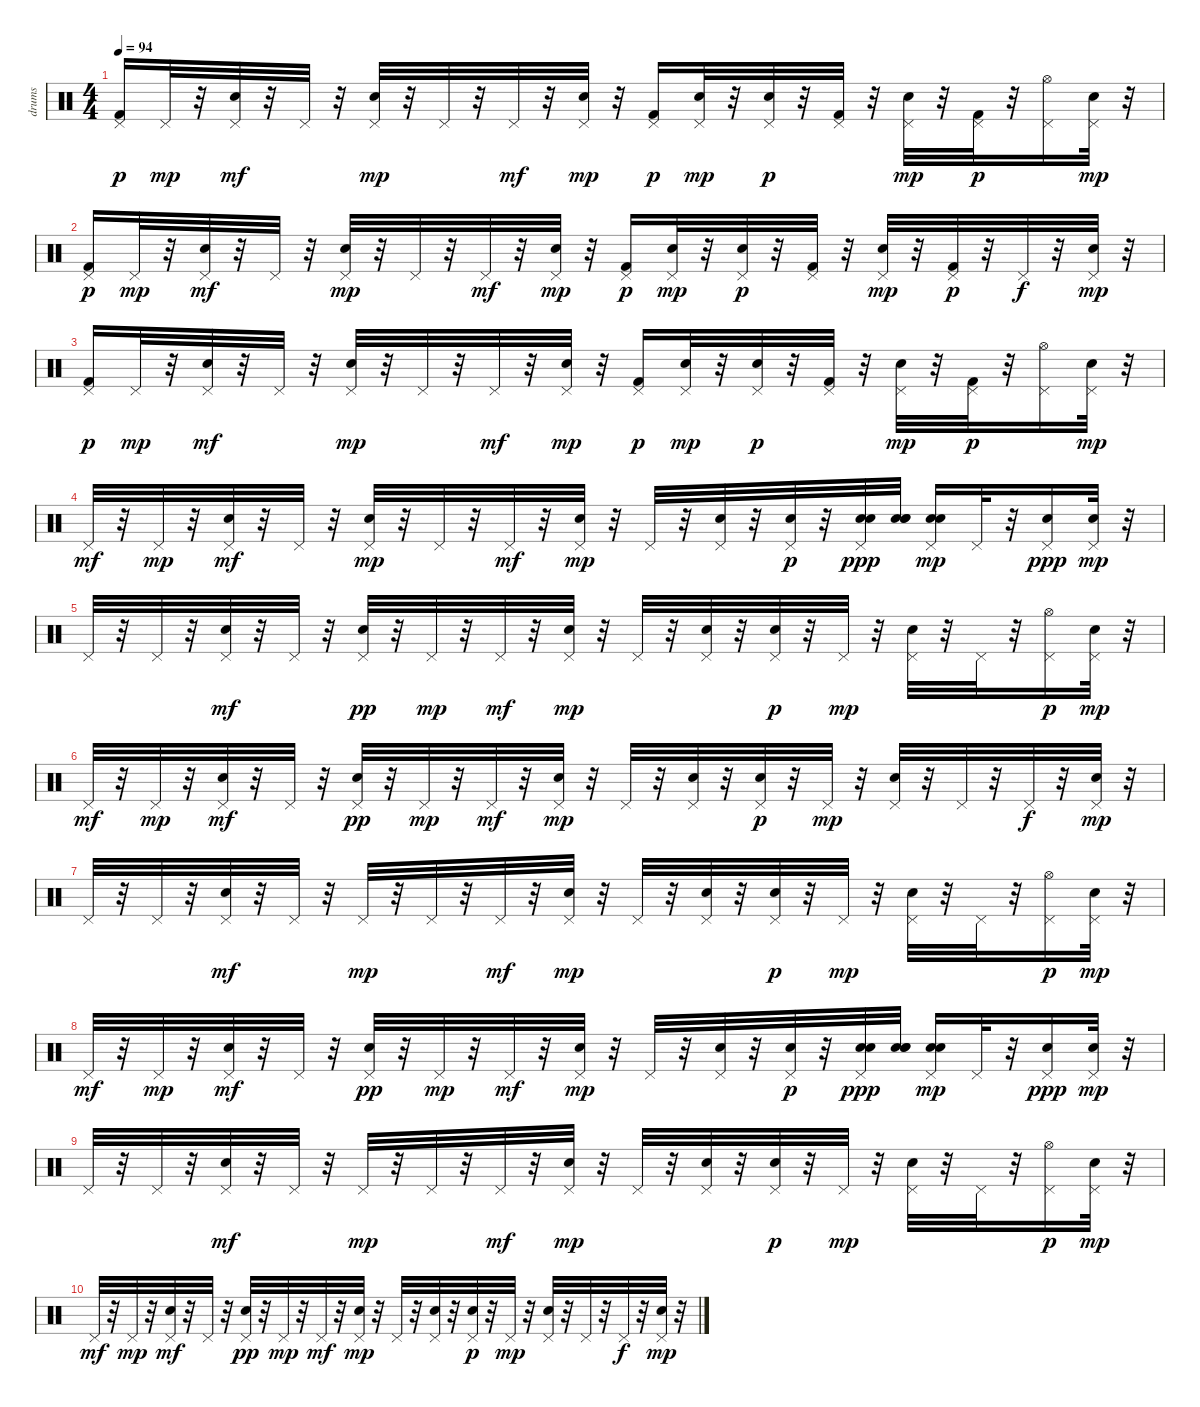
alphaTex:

\track ("drums" "drums") {instrument percussion}
\staff {score}
\articulation defaults
\ts (4 4)
\tempo 94
\clef neutral
\ks c
("Pedal Hi-Hat (hit)" "Kick (hit) 2").16{dy p} "Pedal Hi-Hat (hit)".32{dy mp} r.32 ("Electric Snare (hit)" "Pedal Hi-Hat (hit)").32{dy mf} r.32 "Pedal Hi-Hat (hit)".32 r.32 ("Electric Snare (hit)" "Pedal Hi-Hat (hit)").32{dy mp} r.32 "Pedal Hi-Hat (hit)".32 r.32 "Pedal Hi-Hat (hit)".32{dy mf} r.32 ("Electric Snare (hit)" "Pedal Hi-Hat (hit)").32{dy mp} r.32 ("Pedal Hi-Hat (hit)" "Kick (hit) 2").16{dy p} ("Electric Snare (hit)" "Pedal Hi-Hat (hit)").32{dy mp} r.32 ("Electric Snare (hit)" "Pedal Hi-Hat (hit)").32{dy p} r.32 ("Pedal Hi-Hat (hit)" "Kick (hit) 2").32 r.32 ("Electric Snare (hit)" "Pedal Hi-Hat (hit)").32{dy mp} r.32 ("Pedal Hi-Hat (hit)" "Kick (hit) 2").32{dy p} r.32 ("Hi-Hat (open)" "Pedal Hi-Hat (hit)").16 ("Electric Snare (hit)" "Pedal Hi-Hat (hit)").32{dy mp} r.32 |
("Pedal Hi-Hat (hit)" "Kick (hit) 2").16{dy p} "Pedal Hi-Hat (hit)".32{dy mp} r.32 ("Electric Snare (hit)" "Pedal Hi-Hat (hit)").32{dy mf} r.32 "Pedal Hi-Hat (hit)".32 r.32 ("Electric Snare (hit)" "Pedal Hi-Hat (hit)").32{dy mp} r.32 "Pedal Hi-Hat (hit)".32 r.32 "Pedal Hi-Hat (hit)".32{dy mf} r.32 ("Electric Snare (hit)" "Pedal Hi-Hat (hit)").32{dy mp} r.32 ("Pedal Hi-Hat (hit)" "Kick (hit) 2").16{dy p} ("Electric Snare (hit)" "Pedal Hi-Hat (hit)").32{dy mp volume 9} r.32 ("Electric Snare (hit)" "Pedal Hi-Hat (hit)").32{dy p volume 9} r.32 ("Pedal Hi-Hat (hit)" "Kick (hit) 2").32 r.32 ("Electric Snare (hit)" "Pedal Hi-Hat (hit)").32{dy mp} r.32 ("Pedal Hi-Hat (hit)" "Kick (hit) 2").32{dy p} r.32 "Pedal Hi-Hat (hit)".32{dy f} r.32 ("Electric Snare (hit)" "Pedal Hi-Hat (hit)").32{dy mp} r.32 |
("Pedal Hi-Hat (hit)" "Kick (hit) 2").16{dy p volume 9} "Pedal Hi-Hat (hit)".32{dy mp volume 8} r.32 ("Electric Snare (hit)" "Pedal Hi-Hat (hit)").32{dy mf volume 8} r.32 "Pedal Hi-Hat (hit)".32 r.32 ("Electric Snare (hit)" "Pedal Hi-Hat (hit)").32{dy mp} r.32 "Pedal Hi-Hat (hit)".32{volume 8} r.32 "Pedal Hi-Hat (hit)".32{dy mf} r.32 ("Electric Snare (hit)" "Pedal Hi-Hat (hit)").32{dy mp} r.32 ("Pedal Hi-Hat (hit)" "Kick (hit) 2").16{dy p} ("Electric Snare (hit)" "Pedal Hi-Hat (hit)").32{dy mp} r.32 ("Electric Snare (hit)" "Pedal Hi-Hat (hit)").32{dy p} r.32 ("Pedal Hi-Hat (hit)" "Kick (hit) 2").32 r.32 ("Electric Snare (hit)" "Pedal Hi-Hat (hit)").32{dy mp volume 8} r.32 ("Pedal Hi-Hat (hit)" "Kick (hit) 2").32{dy p volume 8} r.32 ("Hi-Hat (open)" "Pedal Hi-Hat (hit)").16{volume 8} ("Electric Snare (hit)" "Pedal Hi-Hat (hit)").32{dy mp} r.32 |
"Pedal Hi-Hat (hit)".32{dy mf} r.32 "Pedal Hi-Hat (hit)".32{dy mp volume 7} r.32 ("Electric Snare (hit)" "Pedal Hi-Hat (hit)").32{dy mf volume 7} r.32 "Pedal Hi-Hat (hit)".32 r.32 ("Electric Snare (hit)" "Pedal Hi-Hat (hit)").32{dy mp} r.32 "Pedal Hi-Hat (hit)".32{volume 7} r.32 "Pedal Hi-Hat (hit)".32{dy mf} r.32 ("Electric Snare (hit)" "Pedal Hi-Hat (hit)").32{dy mp volume 7} r.32 "Pedal Hi-Hat (hit)".32 r.32 ("Electric Snare (hit)" "Pedal Hi-Hat (hit)").32{volume 6} r.32 ("Electric Snare (hit)" "Pedal Hi-Hat (hit)").32{dy p volume 6} r.32 ("Snare (hit) 2" "Pedal Hi-Hat (hit)" "Snare (hit) 2").32{dy ppp} ("Snare (hit) 2" "Snare (hit) 2" "Snare (hit) 2").32 ("Snare (hit) 2" "Snare (hit) 2" "Pedal Hi-Hat (hit)").16{dy mp} "Pedal Hi-Hat (hit)".32{volume 6} r.32 ("Snare (hit) 2" "Pedal Hi-Hat (hit)").16{dy ppp volume 6} ("Electric Snare (hit)" "Pedal Hi-Hat (hit)").32{dy mp} r.32 |
"Pedal Hi-Hat (hit)".32{volume 6} r.32 "Pedal Hi-Hat (hit)".32 r.32 ("Electric Snare (hit)" "Pedal Hi-Hat (hit)").32{dy mf} r.32 "Pedal Hi-Hat (hit)".32{volume 5} r.32 ("Pedal Hi-Hat (hit)" "Electric Snare (hit)").32{dy pp} r.32 "Pedal Hi-Hat (hit)".32{dy mp} r.32 "Pedal Hi-Hat (hit)".32{dy mf} r.32 ("Electric Snare (hit)" "Pedal Hi-Hat (hit)").32{dy mp} r.32 "Pedal Hi-Hat (hit)".32{volume 5} r.32 ("Electric Snare (hit)" "Pedal Hi-Hat (hit)").32 r.32 ("Electric Snare (hit)" "Pedal Hi-Hat (hit)").32{dy p volume 5} r.32 "Pedal Hi-Hat (hit)".32{dy mp volume 5} r.32 ("Electric Snare (hit)" "Pedal Hi-Hat (hit)").32 r.32 "Pedal Hi-Hat (hit)".32 r.32 ("Hi-Hat (open)" "Pedal Hi-Hat (hit)").16{dy p volume 5} ("Electric Snare (hit)" "Pedal Hi-Hat (hit)").32{dy mp} r.32 |
"Pedal Hi-Hat (hit)".32{dy mf volume 4} r.32 "Pedal Hi-Hat (hit)".32{dy mp volume 4} r.32 ("Electric Snare (hit)" "Pedal Hi-Hat (hit)").32{dy mf} r.32 "Pedal Hi-Hat (hit)".32{volume 4} r.32 ("Pedal Hi-Hat (hit)" "Electric Snare (hit)").32{dy pp} r.32 "Pedal Hi-Hat (hit)".32{dy mp volume 4} r.32 "Pedal Hi-Hat (hit)".32{dy mf} r.32 ("Electric Snare (hit)" "Pedal Hi-Hat (hit)").32{dy mp volume 4} r.32 "Pedal Hi-Hat (hit)".32{volume 4} r.32 ("Electric Snare (hit)" "Pedal Hi-Hat (hit)").32 r.32 ("Electric Snare (hit)" "Pedal Hi-Hat (hit)").32{dy p} r.32 "Pedal Hi-Hat (hit)".32{dy mp volume 4} r.32 ("Electric Snare (hit)" "Pedal Hi-Hat (hit)").32 r.32 "Pedal Hi-Hat (hit)".32 r.32 "Pedal Hi-Hat (hit)".32{dy f} r.32 ("Electric Snare (hit)" "Pedal Hi-Hat (hit)").32{dy mp} r.32 |
"Pedal Hi-Hat (hit)".32 r.32 "Pedal Hi-Hat (hit)".32{volume 4} r.32 ("Electric Snare (hit)" "Pedal Hi-Hat (hit)").32{dy mf} r.32 "Pedal Hi-Hat (hit)".32{volume 3} r.32 "Pedal Hi-Hat (hit)".32{dy mp} r.32 "Pedal Hi-Hat (hit)".32 r.32 "Pedal Hi-Hat (hit)".32{dy mf} r.32 ("Electric Snare (hit)" "Pedal Hi-Hat (hit)").32{dy mp} r.32 "Pedal Hi-Hat (hit)".32{volume 3} r.32 ("Electric Snare (hit)" "Pedal Hi-Hat (hit)").32 r.32 ("Electric Snare (hit)" "Pedal Hi-Hat (hit)").32{dy p} r.32 "Pedal Hi-Hat (hit)".32{dy mp volume 3} r.32 ("Electric Snare (hit)" "Pedal Hi-Hat (hit)").32{volume 3} r.32 "Pedal Hi-Hat (hit)".32{volume 3} r.32 ("Hi-Hat (open)" "Pedal Hi-Hat (hit)").16{dy p volume 2} ("Electric Snare (hit)" "Pedal Hi-Hat (hit)").32{dy mp volume 2} r.32 |
"Pedal Hi-Hat (hit)".32{dy mf volume 2} r.32 "Pedal Hi-Hat (hit)".32{dy mp} r.32 ("Electric Snare (hit)" "Pedal Hi-Hat (hit)").32{dy mf} r.32 "Pedal Hi-Hat (hit)".32{volume 2} r.32 ("Pedal Hi-Hat (hit)" "Electric Snare (hit)").32{dy pp} r.32 "Pedal Hi-Hat (hit)".32{dy mp} r.32 "Pedal Hi-Hat (hit)".32{dy mf volume 2} r.32 ("Electric Snare (hit)" "Pedal Hi-Hat (hit)").32{dy mp} r.32 "Pedal Hi-Hat (hit)".32{volume 1} r.32 ("Electric Snare (hit)" "Pedal Hi-Hat (hit)").32{volume 1} r.32 ("Electric Snare (hit)" "Pedal Hi-Hat (hit)").32{dy p volume 1} r.32 ("Snare (hit) 2" "Pedal Hi-Hat (hit)" "Snare (hit) 2").32{dy ppp} ("Snare (hit) 2" "Snare (hit) 2" "Snare (hit) 2").32 ("Snare (hit) 2" "Snare (hit) 2" "Pedal Hi-Hat (hit)").16{dy mp} "Pedal Hi-Hat (hit)".32 r.32 ("Snare (hit) 2" "Pedal Hi-Hat (hit)").16{dy ppp volume 1} ("Electric Snare (hit)" "Pedal Hi-Hat (hit)").32{dy mp volume 0} r.32 |
"Pedal Hi-Hat (hit)".32 r.32 "Pedal Hi-Hat (hit)".32 r.32 ("Electric Snare (hit)" "Pedal Hi-Hat (hit)").32{dy mf volume 0} r.32 "Pedal Hi-Hat (hit)".32 r.32 "Pedal Hi-Hat (hit)".32{dy mp} r.32 "Pedal Hi-Hat (hit)".32 r.32 "Pedal Hi-Hat (hit)".32{dy mf} r.32 ("Electric Snare (hit)" "Pedal Hi-Hat (hit)").32{dy mp} r.32 "Pedal Hi-Hat (hit)".32 r.32 ("Electric Snare (hit)" "Pedal Hi-Hat (hit)").32 r.32 ("Electric Snare (hit)" "Pedal Hi-Hat (hit)").32{dy p} r.32 "Pedal Hi-Hat (hit)".32{dy mp} r.32 ("Electric Snare (hit)" "Pedal Hi-Hat (hit)").32 r.32 "Pedal Hi-Hat (hit)".32 r.32 ("Hi-Hat (open)" "Pedal Hi-Hat (hit)").16{dy p} ("Electric Snare (hit)" "Pedal Hi-Hat (hit)").32{dy mp} r.32 |
"Pedal Hi-Hat (hit)".32{dy mf} r.32 "Pedal Hi-Hat (hit)".32{dy mp} r.32 ("Electric Snare (hit)" "Pedal Hi-Hat (hit)").32{dy mf} r.32 "Pedal Hi-Hat (hit)".32 r.32 ("Pedal Hi-Hat (hit)" "Electric Snare (hit)").32{dy pp} r.32 "Pedal Hi-Hat (hit)".32{dy mp} r.32 "Pedal Hi-Hat (hit)".32{dy mf} r.32 ("Electric Snare (hit)" "Pedal Hi-Hat (hit)").32{dy mp} r.32 "Pedal Hi-Hat (hit)".32 r.32 ("Electric Snare (hit)" "Pedal Hi-Hat (hit)").32 r.32 ("Electric Snare (hit)" "Pedal Hi-Hat (hit)").32{dy p} r.32 "Pedal Hi-Hat (hit)".32{dy mp} r.32 ("Electric Snare (hit)" "Pedal Hi-Hat (hit)").32 r.32 "Pedal Hi-Hat (hit)".32 r.32 "Pedal Hi-Hat (hit)".32{dy f} r.32 ("Electric Snare (hit)" "Pedal Hi-Hat (hit)").32{dy mp} r.32
